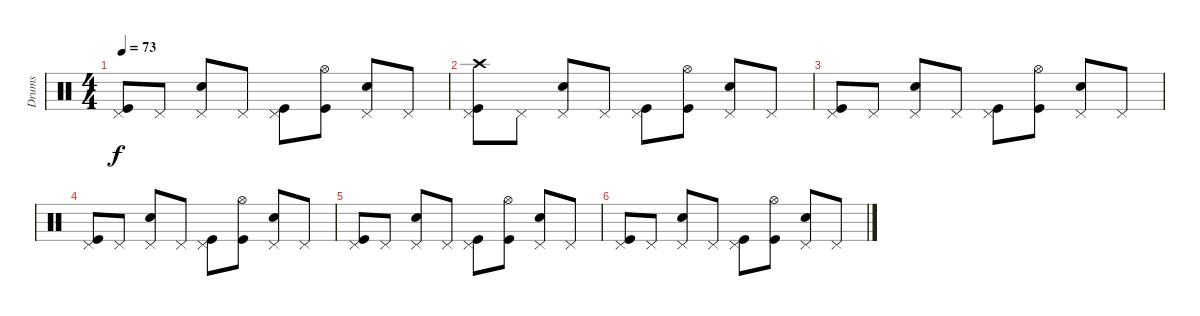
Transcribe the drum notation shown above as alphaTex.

\track ("Drums" "Drums") {instrument percussion}
\staff {score}
\articulation defaults
\ts (4 4)
\tempo 73
\clef neutral
\ks c
("Kick (hit)" "Pedal Hi-Hat (hit)").8{dy f} "Pedal Hi-Hat (hit)".8 ("Snare (hit) 2" "Pedal Hi-Hat (hit)").8 "Pedal Hi-Hat (hit)".8 ("Kick (hit)" "Pedal Hi-Hat (hit)").8 ("Kick (hit)" "Hi-Hat (open)").8 ("Snare (hit) 2" "Pedal Hi-Hat (hit)").8 "Pedal Hi-Hat (hit)".8 |
("Crash high (hit)" "Kick (hit)" "Pedal Hi-Hat (hit)").8 "Pedal Hi-Hat (hit)".8 ("Snare (hit) 2" "Pedal Hi-Hat (hit)").8 "Pedal Hi-Hat (hit)".8 ("Kick (hit)" "Pedal Hi-Hat (hit)").8 ("Kick (hit)" "Hi-Hat (open)").8 ("Snare (hit) 2" "Pedal Hi-Hat (hit)").8 "Pedal Hi-Hat (hit)".8 |
("Kick (hit)" "Pedal Hi-Hat (hit)").8 "Pedal Hi-Hat (hit)".8 ("Snare (hit) 2" "Pedal Hi-Hat (hit)").8 "Pedal Hi-Hat (hit)".8 ("Kick (hit)" "Pedal Hi-Hat (hit)").8 ("Kick (hit)" "Hi-Hat (open)").8 ("Snare (hit) 2" "Pedal Hi-Hat (hit)").8 "Pedal Hi-Hat (hit)".8 |
("Kick (hit)" "Pedal Hi-Hat (hit)").8 "Pedal Hi-Hat (hit)".8 ("Snare (hit) 2" "Pedal Hi-Hat (hit)").8 "Pedal Hi-Hat (hit)".8 ("Kick (hit)" "Pedal Hi-Hat (hit)").8 ("Kick (hit)" "Hi-Hat (open)").8 ("Snare (hit) 2" "Pedal Hi-Hat (hit)").8 "Pedal Hi-Hat (hit)".8 |
("Kick (hit)" "Pedal Hi-Hat (hit)").8 "Pedal Hi-Hat (hit)".8 ("Snare (hit) 2" "Pedal Hi-Hat (hit)").8 "Pedal Hi-Hat (hit)".8 ("Kick (hit)" "Pedal Hi-Hat (hit)").8 ("Kick (hit)" "Hi-Hat (open)").8 ("Snare (hit) 2" "Pedal Hi-Hat (hit)").8 "Pedal Hi-Hat (hit)".8 |
("Kick (hit)" "Pedal Hi-Hat (hit)").8 "Pedal Hi-Hat (hit)".8 ("Snare (hit) 2" "Pedal Hi-Hat (hit)").8 "Pedal Hi-Hat (hit)".8 ("Kick (hit)" "Pedal Hi-Hat (hit)").8 ("Kick (hit)" "Hi-Hat (open)").8 ("Snare (hit) 2" "Pedal Hi-Hat (hit)").8 "Pedal Hi-Hat (hit)".8
